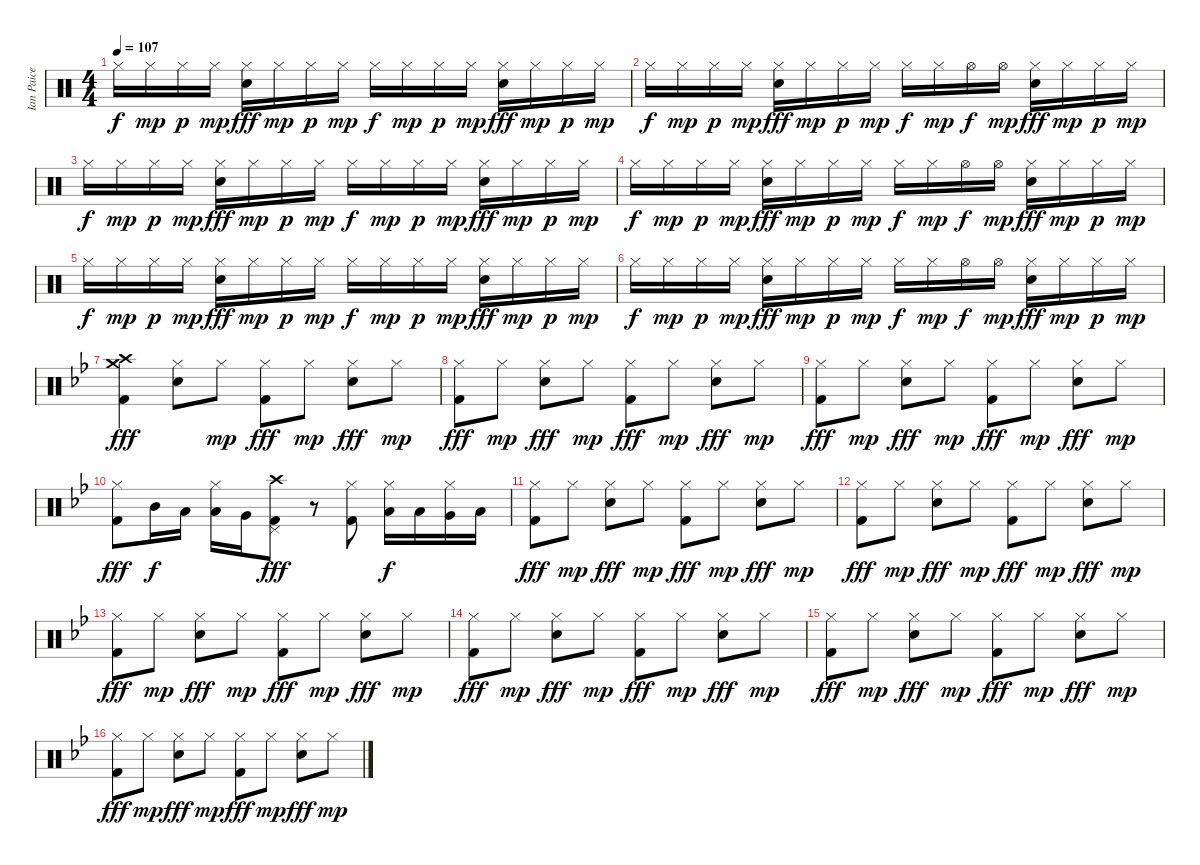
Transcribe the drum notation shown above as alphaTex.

\track ("Ian Paice" "Ian Paice") {instrument percussion}
\staff {score}
\articulation defaults
\ts (4 4)
\tempo 107
\clef neutral
\ks c "Hi-Hat (closed)".16{dy f} "Hi-Hat (closed)".16{dy mp} "Hi-Hat (closed)".16{dy p} "Hi-Hat (closed)".16{dy mp}
("Hi-Hat (closed)" "Electric Snare (hit)").16{dy fff} "Hi-Hat (closed)".16{dy mp} "Hi-Hat (closed)".16{dy p} "Hi-Hat (closed)".16{dy mp} "Hi-Hat (closed)".16{dy f} "Hi-Hat (closed)".16{dy mp} "Hi-Hat (closed)".16{dy p} "Hi-Hat (closed)".16{dy mp} ("Hi-Hat (closed)" "Electric Snare (hit)").16{dy fff} "Hi-Hat (closed)".16{dy mp} "Hi-Hat (closed)".16{dy p} "Hi-Hat (closed)".16{dy mp} |
"Hi-Hat (closed)".16{dy f} "Hi-Hat (closed)".16{dy mp} "Hi-Hat (closed)".16{dy p} "Hi-Hat (closed)".16{dy mp} ("Hi-Hat (closed)" "Electric Snare (hit)").16{dy fff} "Hi-Hat (closed)".16{dy mp} "Hi-Hat (closed)".16{dy p} "Hi-Hat (closed)".16{dy mp} "Hi-Hat (closed)".16{dy f} "Hi-Hat (closed)".16{dy mp} "Hi-Hat (open)".16{dy f} "Hi-Hat (open)".16{dy mp} ("Hi-Hat (closed)" "Electric Snare (hit)").16{dy fff} "Hi-Hat (closed)".16{dy mp} "Hi-Hat (closed)".16{dy p} "Hi-Hat (closed)".16{dy mp} |
"Hi-Hat (closed)".16{dy f} "Hi-Hat (closed)".16{dy mp} "Hi-Hat (closed)".16{dy p} "Hi-Hat (closed)".16{dy mp} ("Hi-Hat (closed)" "Electric Snare (hit)").16{dy fff} "Hi-Hat (closed)".16{dy mp} "Hi-Hat (closed)".16{dy p} "Hi-Hat (closed)".16{dy mp} "Hi-Hat (closed)".16{dy f} "Hi-Hat (closed)".16{dy mp} "Hi-Hat (closed)".16{dy p} "Hi-Hat (closed)".16{dy mp} ("Hi-Hat (closed)" "Electric Snare (hit)").16{dy fff} "Hi-Hat (closed)".16{dy mp} "Hi-Hat (closed)".16{dy p} "Hi-Hat (closed)".16{dy mp} |
"Hi-Hat (closed)".16{dy f} "Hi-Hat (closed)".16{dy mp} "Hi-Hat (closed)".16{dy p} "Hi-Hat (closed)".16{dy mp} ("Hi-Hat (closed)" "Electric Snare (hit)").16{dy fff} "Hi-Hat (closed)".16{dy mp} "Hi-Hat (closed)".16{dy p} "Hi-Hat (closed)".16{dy mp} "Hi-Hat (closed)".16{dy f} "Hi-Hat (closed)".16{dy mp} "Hi-Hat (open)".16{dy f} "Hi-Hat (open)".16{dy mp} ("Hi-Hat (closed)" "Electric Snare (hit)").16{dy fff} "Hi-Hat (closed)".16{dy mp} "Hi-Hat (closed)".16{dy p} "Hi-Hat (closed)".16{dy mp} |
"Hi-Hat (closed)".16{dy f} "Hi-Hat (closed)".16{dy mp} "Hi-Hat (closed)".16{dy p} "Hi-Hat (closed)".16{dy mp} ("Hi-Hat (closed)" "Electric Snare (hit)").16{dy fff} "Hi-Hat (closed)".16{dy mp} "Hi-Hat (closed)".16{dy p} "Hi-Hat (closed)".16{dy mp} "Hi-Hat (closed)".16{dy f} "Hi-Hat (closed)".16{dy mp} "Hi-Hat (closed)".16{dy p} "Hi-Hat (closed)".16{dy mp} ("Hi-Hat (closed)" "Electric Snare (hit)").16{dy fff} "Hi-Hat (closed)".16{dy mp} "Hi-Hat (closed)".16{dy p} "Hi-Hat (closed)".16{dy mp} |
"Hi-Hat (closed)".16{dy f} "Hi-Hat (closed)".16{dy mp} "Hi-Hat (closed)".16{dy p} "Hi-Hat (closed)".16{dy mp} ("Hi-Hat (closed)" "Electric Snare (hit)").16{dy fff} "Hi-Hat (closed)".16{dy mp} "Hi-Hat (closed)".16{dy p} "Hi-Hat (closed)".16{dy mp} "Hi-Hat (closed)".16{dy f} "Hi-Hat (closed)".16{dy mp} "Hi-Hat (open)".16{dy f} "Hi-Hat (open)".16{dy mp} ("Hi-Hat (closed)" "Electric Snare (hit)").16{dy fff} "Hi-Hat (closed)".16{dy mp} "Hi-Hat (closed)".16{dy p} "Hi-Hat (closed)".16{dy mp} |
\ks bb
("Crash high (hit)" "Crash medium (hit)" "Kick (hit) 2").4{dy fff} ("Hi-Hat (closed)" "Electric Snare (hit)").8 "Hi-Hat (closed)".8{dy mp} ("Hi-Hat (closed)" "Kick (hit) 2").8{dy fff} "Hi-Hat (closed)".8{dy mp} ("Hi-Hat (closed)" "Electric Snare (hit)").8{dy fff} "Hi-Hat (closed)".8{dy mp} |
("Hi-Hat (closed)" "Kick (hit) 2").8{dy fff} "Hi-Hat (closed)".8{dy mp} ("Hi-Hat (closed)" "Electric Snare (hit)").8{dy fff} "Hi-Hat (closed)".8{dy mp} ("Hi-Hat (closed)" "Kick (hit) 2").8{dy fff} "Hi-Hat (closed)".8{dy mp} ("Hi-Hat (closed)" "Electric Snare (hit)").8{dy fff} "Hi-Hat (closed)".8{dy mp} |
("Hi-Hat (closed)" "Kick (hit) 2").8{dy fff} "Hi-Hat (closed)".8{dy mp} ("Hi-Hat (closed)" "Electric Snare (hit)").8{dy fff} "Hi-Hat (closed)".8{dy mp} ("Hi-Hat (closed)" "Kick (hit) 2").8{dy fff} "Hi-Hat (closed)".8{dy mp} ("Hi-Hat (closed)" "Electric Snare (hit)").8{dy fff} "Hi-Hat (closed)".8{dy mp} |
("Hi-Hat (closed)" "Kick (hit) 2").8{dy fff} "Mid Tom (hit)".16{dy f} "Low Tom (hit)".16 ("Hi-Hat (closed)" "Low Tom (hit)").16 "Very Low Tom (hit)".16 ("Crash high (hit)" "Pedal Hi-Hat (hit)" "Kick (hit) 2").8{dy fff} r.8 ("Hi-Hat (closed)" "Kick (hit) 2").8 ("Hi-Hat (closed)" "Low Tom (hit)").16{dy f} "Low Tom (hit)".16 ("Hi-Hat (closed)" "Very Low Tom (hit)").16 "Low Floor Tom (hit)".16 |
("Hi-Hat (closed)" "Kick (hit) 2").8{dy fff} "Hi-Hat (closed)".8{dy mp} ("Hi-Hat (closed)" "Electric Snare (hit)").8{dy fff} "Hi-Hat (closed)".8{dy mp} ("Hi-Hat (closed)" "Kick (hit) 2").8{dy fff} "Hi-Hat (closed)".8{dy mp} ("Hi-Hat (closed)" "Electric Snare (hit)").8{dy fff} "Hi-Hat (closed)".8{dy mp} |
("Hi-Hat (closed)" "Kick (hit) 2").8{dy fff} "Hi-Hat (closed)".8{dy mp} ("Hi-Hat (closed)" "Electric Snare (hit)").8{dy fff} "Hi-Hat (closed)".8{dy mp} ("Hi-Hat (closed)" "Kick (hit) 2").8{dy fff} "Hi-Hat (closed)".8{dy mp} ("Hi-Hat (closed)" "Electric Snare (hit)").8{dy fff} "Hi-Hat (closed)".8{dy mp} |
("Hi-Hat (closed)" "Kick (hit) 2").8{dy fff} "Hi-Hat (closed)".8{dy mp} ("Hi-Hat (closed)" "Electric Snare (hit)").8{dy fff} "Hi-Hat (closed)".8{dy mp} ("Hi-Hat (closed)" "Kick (hit) 2").8{dy fff} "Hi-Hat (closed)".8{dy mp} ("Hi-Hat (closed)" "Electric Snare (hit)").8{dy fff} "Hi-Hat (closed)".8{dy mp} |
("Hi-Hat (closed)" "Kick (hit) 2").8{dy fff} "Hi-Hat (closed)".8{dy mp} ("Hi-Hat (closed)" "Electric Snare (hit)").8{dy fff} "Hi-Hat (closed)".8{dy mp} ("Hi-Hat (closed)" "Kick (hit) 2").8{dy fff} "Hi-Hat (closed)".8{dy mp} ("Hi-Hat (closed)" "Electric Snare (hit)").8{dy fff} "Hi-Hat (closed)".8{dy mp} |
("Hi-Hat (closed)" "Kick (hit) 2").8{dy fff} "Hi-Hat (closed)".8{dy mp} ("Hi-Hat (closed)" "Electric Snare (hit)").8{dy fff} "Hi-Hat (closed)".8{dy mp} ("Hi-Hat (closed)" "Kick (hit) 2").8{dy fff} "Hi-Hat (closed)".8{dy mp} ("Hi-Hat (closed)" "Electric Snare (hit)").8{dy fff} "Hi-Hat (closed)".8{dy mp} |
("Hi-Hat (closed)" "Kick (hit) 2").8{dy fff} "Hi-Hat (closed)".8{dy mp} ("Hi-Hat (closed)" "Electric Snare (hit)").8{dy fff} "Hi-Hat (closed)".8{dy mp} ("Hi-Hat (closed)" "Kick (hit) 2").8{dy fff} "Hi-Hat (closed)".8{dy mp} ("Hi-Hat (closed)" "Electric Snare (hit)").8{dy fff} "Hi-Hat (closed)".8{dy mp}
